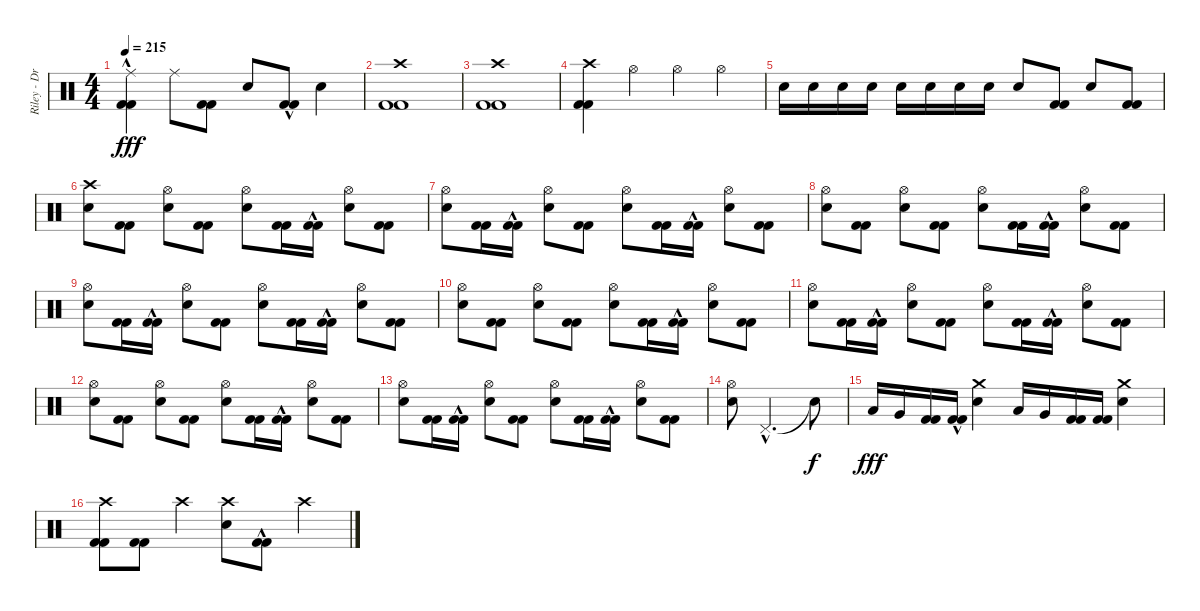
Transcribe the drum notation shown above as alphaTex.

\track ("Riley - Drums" "Riley - Dr") {instrument percussion}
\staff {score}
\articulation defaults
\ts (4 4)
\tempo 215
\clef neutral
\ks c
("Kick (hit) 2"{hac} "Kick (hit) 2"{hac} "Ride (middle)").4{dy fff} "Ride (middle)".8 ("Kick (hit) 2" "Kick (hit) 2").8 "Electric Snare (hit)".8 ("Kick (hit) 2"{hac} "Kick (hit) 2"{hac}).8 "Electric Snare (hit)".4 |
("Kick (hit) 2" "Kick (hit) 2" "Crash high (hit)").1 |
("Kick (hit) 2" "Kick (hit) 2" "Crash high (hit)").1 |
("Kick (hit) 2" "Kick (hit) 2" "Crash high (hit)").4 "Hi-Hat (open)".4 "Hi-Hat (open)".4 "Hi-Hat (open)".4 |
"Electric Snare (hit)".16 "Electric Snare (hit)".16 "Electric Snare (hit)".16 "Electric Snare (hit)".16 "Electric Snare (hit)".16 "Electric Snare (hit)".16 "Electric Snare (hit)".16 "Electric Snare (hit)".16 "Electric Snare (hit)".8 ("Kick (hit) 2" "Kick (hit) 2").8 "Electric Snare (hit)".8 ("Kick (hit) 2" "Kick (hit) 2").8 |
("Electric Snare (hit)" "Crash high (hit)").8 ("Kick (hit) 2" "Kick (hit) 2").8 ("Electric Snare (hit)" "Hi-Hat (open)").8 ("Kick (hit) 2" "Kick (hit) 2").8 ("Electric Snare (hit)" "Hi-Hat (open)").8 ("Kick (hit) 2" "Kick (hit) 2").16 ("Kick (hit) 2"{hac} "Kick (hit) 2"{hac}).16 ("Electric Snare (hit)" "Hi-Hat (open)").8 ("Kick (hit) 2" "Kick (hit) 2").8 |
("Electric Snare (hit)" "Hi-Hat (open)").8 ("Kick (hit) 2" "Kick (hit) 2").16 ("Kick (hit) 2"{hac} "Kick (hit) 2"{hac}).16 ("Electric Snare (hit)" "Hi-Hat (open)").8 ("Kick (hit) 2" "Kick (hit) 2").8 ("Electric Snare (hit)" "Hi-Hat (open)").8 ("Kick (hit) 2" "Kick (hit) 2").16 ("Kick (hit) 2"{hac} "Kick (hit) 2"{hac}).16 ("Electric Snare (hit)" "Hi-Hat (open)").8 ("Kick (hit) 2" "Kick (hit) 2").8 |
("Electric Snare (hit)" "Hi-Hat (open)").8 ("Kick (hit) 2" "Kick (hit) 2").8 ("Electric Snare (hit)" "Hi-Hat (open)").8 ("Kick (hit) 2" "Kick (hit) 2").8 ("Electric Snare (hit)" "Hi-Hat (open)").8 ("Kick (hit) 2" "Kick (hit) 2").16 ("Kick (hit) 2"{hac} "Kick (hit) 2"{hac}).16 ("Electric Snare (hit)" "Hi-Hat (open)").8 ("Kick (hit) 2" "Kick (hit) 2").8 |
("Electric Snare (hit)" "Hi-Hat (open)").8 ("Kick (hit) 2" "Kick (hit) 2").16 ("Kick (hit) 2"{hac} "Kick (hit) 2"{hac}).16 ("Electric Snare (hit)" "Hi-Hat (open)").8 ("Kick (hit) 2" "Kick (hit) 2").8 ("Electric Snare (hit)" "Hi-Hat (open)").8 ("Kick (hit) 2" "Kick (hit) 2").16 ("Kick (hit) 2"{hac} "Kick (hit) 2"{hac}).16 ("Electric Snare (hit)" "Hi-Hat (open)").8 ("Kick (hit) 2" "Kick (hit) 2").8 |
("Electric Snare (hit)" "Hi-Hat (open)").8 ("Kick (hit) 2" "Kick (hit) 2").8 ("Electric Snare (hit)" "Hi-Hat (open)").8 ("Kick (hit) 2" "Kick (hit) 2").8 ("Electric Snare (hit)" "Hi-Hat (open)").8 ("Kick (hit) 2" "Kick (hit) 2").16 ("Kick (hit) 2"{hac} "Kick (hit) 2"{hac}).16 ("Electric Snare (hit)" "Hi-Hat (open)").8 ("Kick (hit) 2" "Kick (hit) 2").8 |
("Electric Snare (hit)" "Hi-Hat (open)").8 ("Kick (hit) 2" "Kick (hit) 2").16 ("Kick (hit) 2"{hac} "Kick (hit) 2"{hac}).16 ("Electric Snare (hit)" "Hi-Hat (open)").8 ("Kick (hit) 2" "Kick (hit) 2").8 ("Electric Snare (hit)" "Hi-Hat (open)").8 ("Kick (hit) 2" "Kick (hit) 2").16 ("Kick (hit) 2"{hac} "Kick (hit) 2"{hac}).16 ("Electric Snare (hit)" "Hi-Hat (open)").8 ("Kick (hit) 2" "Kick (hit) 2").8 |
("Electric Snare (hit)" "Hi-Hat (open)").8 ("Kick (hit) 2" "Kick (hit) 2").8 ("Electric Snare (hit)" "Hi-Hat (open)").8 ("Kick (hit) 2" "Kick (hit) 2").8 ("Electric Snare (hit)" "Hi-Hat (open)").8 ("Kick (hit) 2" "Kick (hit) 2").16 ("Kick (hit) 2"{hac} "Kick (hit) 2"{hac}).16 ("Electric Snare (hit)" "Hi-Hat (open)").8 ("Kick (hit) 2" "Kick (hit) 2").8 |
("Electric Snare (hit)" "Hi-Hat (open)").8 ("Kick (hit) 2" "Kick (hit) 2").16 ("Kick (hit) 2"{hac} "Kick (hit) 2"{hac}).16 ("Electric Snare (hit)" "Hi-Hat (open)").8 ("Kick (hit) 2" "Kick (hit) 2").8 ("Electric Snare (hit)" "Hi-Hat (open)").8 ("Kick (hit) 2" "Kick (hit) 2").16 ("Kick (hit) 2"{hac} "Kick (hit) 2"{hac}).16 ("Electric Snare (hit)" "Hi-Hat (open)").8 ("Kick (hit) 2" "Kick (hit) 2").8 |
("Electric Snare (hit)" "Hi-Hat (open)").8 "Pedal Hi-Hat (hit)"{hac}.2{d} "Snare (hit)"{t}.8{dy f} |
"Low Tom (hit)".16{dy fff} "Very Low Tom (hit)".16 ("Kick (hit) 2" "Kick (hit) 2").16 ("Kick (hit) 2"{hac} "Kick (hit) 2"{hac}).16 ("Electric Snare (hit)" "Crash medium (hit)").4 "Low Tom (hit)".16 "Very Low Tom (hit)".16 ("Kick (hit) 2" "Kick (hit) 2").16 ("Kick (hit) 2" "Kick (hit) 2").16 ("Electric Snare (hit)" "Crash medium (hit)").4 |
("Kick (hit) 2" "Kick (hit) 2" "Crash high (hit)").8 ("Kick (hit) 2" "Kick (hit) 2").8 "Crash high (hit)".4 ("Electric Snare (hit)" "Crash high (hit)").8 ("Kick (hit) 2"{hac} "Kick (hit) 2"{hac}).8 "Crash high (hit)".4
